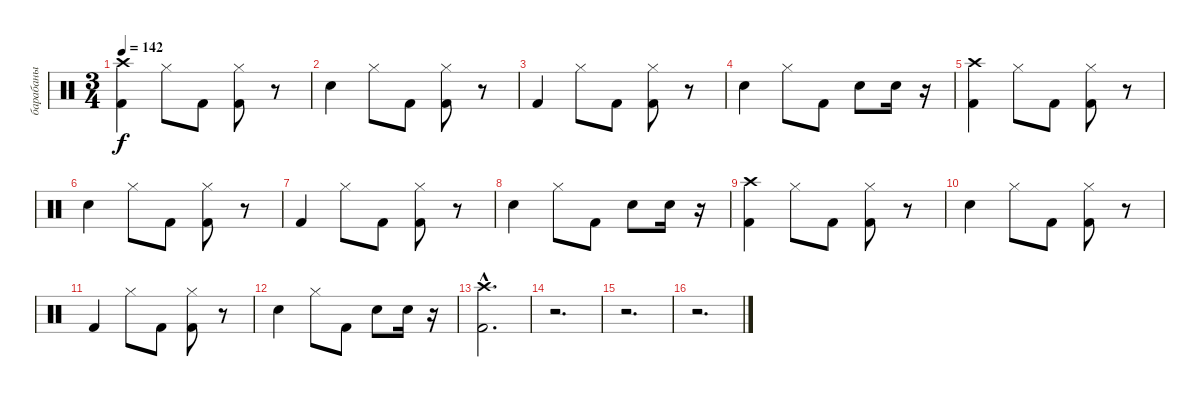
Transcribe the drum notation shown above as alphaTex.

\track ("барабаны" "барабаны") {instrument percussion}
\staff {score}
\articulation defaults
\ts (3 4)
\tempo 142
\clef neutral
\ks c
("Crash high (hit)" "Kick (hit) 2").4{dy f} "Hi-Hat (closed)".8 "Kick (hit) 2".8 ("Hi-Hat (closed)" "Kick (hit) 2").8 r.8 |
"Snare (hit) 2".4 "Hi-Hat (closed)".8 "Kick (hit) 2".8 ("Hi-Hat (closed)" "Kick (hit) 2").8 r.8 |
"Kick (hit) 2".4 "Hi-Hat (closed)".8 "Kick (hit) 2".8 ("Hi-Hat (closed)" "Kick (hit) 2").8 r.8 |
"Snare (hit) 2".4 "Hi-Hat (closed)".8 "Kick (hit) 2".8 "Snare (hit) 2".8 "Snare (hit) 2".16 r.16 |
("Crash high (hit)" "Kick (hit) 2").4 "Hi-Hat (closed)".8 "Kick (hit) 2".8 ("Hi-Hat (closed)" "Kick (hit) 2").8 r.8 |
"Snare (hit) 2".4 "Hi-Hat (closed)".8 "Kick (hit) 2".8 ("Hi-Hat (closed)" "Kick (hit) 2").8 r.8 |
"Kick (hit) 2".4 "Hi-Hat (closed)".8 "Kick (hit) 2".8 ("Hi-Hat (closed)" "Kick (hit) 2").8 r.8 |
"Snare (hit) 2".4 "Hi-Hat (closed)".8 "Kick (hit) 2".8 "Snare (hit) 2".8 "Snare (hit) 2".16 r.16 |
("Crash high (hit)" "Kick (hit) 2").4 "Hi-Hat (closed)".8 "Kick (hit) 2".8 ("Hi-Hat (closed)" "Kick (hit) 2").8 r.8 |
"Snare (hit) 2".4 "Hi-Hat (closed)".8 "Kick (hit) 2".8 ("Hi-Hat (closed)" "Kick (hit) 2").8 r.8 |
"Kick (hit) 2".4 "Hi-Hat (closed)".8 "Kick (hit) 2".8 ("Hi-Hat (closed)" "Kick (hit) 2").8 r.8 |
"Snare (hit) 2".4 "Hi-Hat (closed)".8 "Kick (hit) 2".8 "Snare (hit) 2".8 "Snare (hit) 2".16 r.16 |
("Crash high (hit)"{hac} "Kick (hit) 2"{hac}).2{d} |
r.2{d} |
r.2{d} |
r.2{d}
